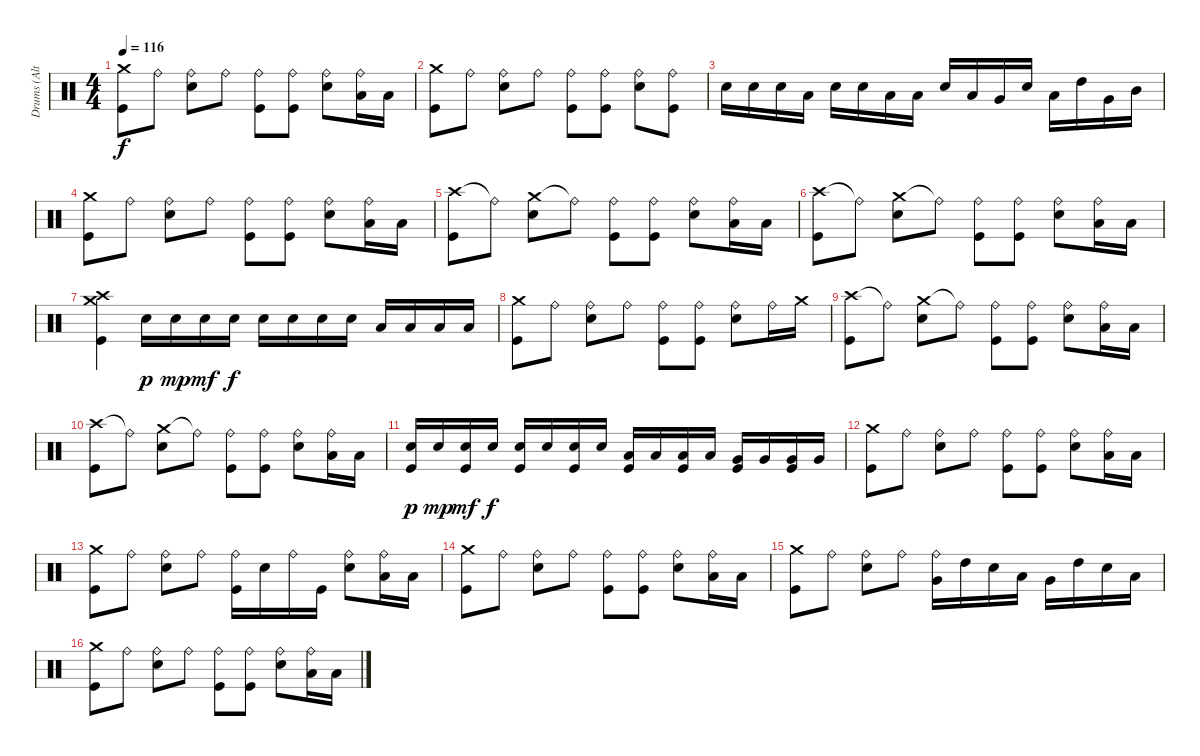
\track ("Drums (Alternate - NOT ON MASTER)" "Drums (Alt") {mute instrument percussion}
\staff {score}
\articulation defaults
\ts (4 4)
\tempo 116
\clef neutral
\ks c
("Crash medium (hit)" "Kick (hit)").8{dy f} "Ride (bell)".8 ("Ride (bell)" "Snare (hit) 2").8 "Ride (bell)".8 ("Ride (bell)" "Kick (hit)").8 ("Ride (bell)" "Kick (hit)").8 ("Ride (bell)" "Snare (hit) 2").8 ("Ride (bell)" "Low Tom (hit)").16 "Low Tom (hit)".16 |
("Crash medium (hit)" "Kick (hit)").8 "Ride (bell)".8 ("Ride (bell)" "Snare (hit) 2").8 "Ride (bell)".8 ("Ride (bell)" "Kick (hit)").8 ("Ride (bell)" "Kick (hit)").8 ("Ride (bell)" "Snare (hit) 2").8 ("Ride (bell)" "Kick (hit)").8 |
"Snare (hit) 2".16 "Snare (hit) 2".16 "Snare (hit) 2".16 "Low Tom (hit)".16 "Snare (hit) 2".16 "Snare (hit) 2".16 "Low Tom (hit)".16 "Low Tom (hit)".16 "Snare (hit) 2".16 "Low Tom (hit)".16 "Very Low Tom (hit)".16 "Snare (hit) 2".16 "Low Tom (hit)".16 "High Tom (hit)".16 "Very Low Tom (hit)".16 "Mid Tom (hit)".16 |
("Crash medium (hit)" "Kick (hit)").8 "Ride (bell)".8 ("Ride (bell)" "Snare (hit) 2").8 "Ride (bell)".8 ("Ride (bell)" "Kick (hit)").8 ("Ride (bell)" "Kick (hit)").8 ("Ride (bell)" "Snare (hit) 2").8 ("Ride (bell)" "Low Tom (hit)").16 "Low Tom (hit)".16 |
("Crash high (hit)" "Kick (hit)").8 "Ride (bell)"{t}.8 ("Crash medium (hit)" "Snare (hit) 2").8 "Ride (bell)"{t}.8 ("Ride (bell)" "Kick (hit)").8 ("Ride (bell)" "Kick (hit)").8 ("Ride (bell)" "Snare (hit) 2").8 ("Ride (bell)" "Low Tom (hit)").16 "Low Tom (hit)".16 |
("Crash high (hit)" "Kick (hit)").8 "Ride (bell)"{t}.8 ("Crash medium (hit)" "Snare (hit) 2").8 "Ride (bell)"{t}.8 ("Ride (bell)" "Kick (hit)").8 ("Ride (bell)" "Kick (hit)").8 ("Ride (bell)" "Snare (hit) 2").8 ("Ride (bell)" "Low Tom (hit)").16 "Low Tom (hit)".16 |
("Crash medium (hit)" "Crash high (hit)" "Kick (hit)").4 "Snare (hit) 2".16{dy p} "Snare (hit) 2".16{dy mp} "Snare (hit) 2".16{dy mf} "Snare (hit) 2".16{dy f} "Snare (hit) 2".16 "Snare (hit) 2".16 "Snare (hit) 2".16 "Snare (hit) 2".16 "Low Tom (hit)".16 "Low Tom (hit)".16 "Low Tom (hit)".16 "Low Tom (hit)".16 |
("Crash medium (hit)" "Kick (hit)").8 "Ride (bell)".8 ("Ride (bell)" "Snare (hit) 2").8 "Ride (bell)".8 ("Ride (bell)" "Kick (hit)").8 ("Ride (bell)" "Kick (hit)").8 ("Ride (bell)" "Snare (hit) 2").8 "Ride (bell)".16 "Crash medium (hit)".16 |
("Crash high (hit)" "Kick (hit)").8 "Ride (bell)"{t}.8 ("Crash medium (hit)" "Snare (hit) 2").8 "Ride (bell)"{t}.8 ("Ride (bell)" "Kick (hit)").8 ("Ride (bell)" "Kick (hit)").8 ("Ride (bell)" "Snare (hit) 2").8 ("Ride (bell)" "Low Tom (hit)").16 "Low Tom (hit)".16 |
("Crash high (hit)" "Kick (hit)").8 "Ride (bell)"{t}.8 ("Crash medium (hit)" "Snare (hit) 2").8 "Ride (bell)"{t}.8 ("Ride (bell)" "Kick (hit)").8 ("Ride (bell)" "Kick (hit)").8 ("Ride (bell)" "Snare (hit) 2").8 ("Ride (bell)" "Low Tom (hit)").16 "Low Tom (hit)".16 |
("Snare (hit) 2" "Kick (hit)").16{dy p} "Snare (hit) 2".16{dy mp} ("Snare (hit) 2" "Kick (hit)").16{dy mf} "Snare (hit) 2".16{dy f} ("Snare (hit) 2" "Kick (hit)").16 "Snare (hit) 2".16 ("Snare (hit) 2" "Kick (hit)").16 "Snare (hit) 2".16 ("Low Tom (hit)" "Kick (hit)").16 "Low Tom (hit)".16 ("Low Tom (hit)" "Kick (hit)").16 "Low Tom (hit)".16 ("Very Low Tom (hit)" "Kick (hit)").16 "Very Low Tom (hit)".16 ("Very Low Tom (hit)" "Kick (hit)").16 "Very Low Tom (hit)".16 |
("Crash medium (hit)" "Kick (hit)").8 "Ride (bell)".8 ("Ride (bell)" "Snare (hit) 2").8 "Ride (bell)".8 ("Ride (bell)" "Kick (hit)").8 ("Ride (bell)" "Kick (hit)").8 ("Ride (bell)" "Snare (hit) 2").8 ("Ride (bell)" "Low Tom (hit)").16 "Low Tom (hit)".16 |
("Crash medium (hit)" "Kick (hit)").8 "Ride (bell)".8 ("Ride (bell)" "Snare (hit) 2").8 "Ride (bell)".8 ("Ride (bell)" "Kick (hit)").16 "Snare (hit) 2".16 "Ride (bell)".16 "Kick (hit)".16 ("Ride (bell)" "Snare (hit) 2").8 ("Ride (bell)" "Low Tom (hit)").16 "Low Tom (hit)".16 |
("Crash medium (hit)" "Kick (hit)").8 "Ride (bell)".8 ("Ride (bell)" "Snare (hit) 2").8 "Ride (bell)".8 ("Ride (bell)" "Kick (hit)").8 ("Ride (bell)" "Kick (hit)").8 ("Ride (bell)" "Snare (hit) 2").8 ("Ride (bell)" "Low Tom (hit)").16 "Low Tom (hit)".16 |
("Crash medium (hit)" "Kick (hit)").8 "Ride (bell)".8 ("Ride (bell)" "Snare (hit) 2").8 "Ride (bell)".8 ("Ride (bell)" "Very Low Tom (hit)").16 "High Tom (hit)".16 "Snare (hit) 2".16 "Low Tom (hit)".16 "Very Low Tom (hit)".16 "High Tom (hit)".16 "Snare (hit) 2".16 "Low Tom (hit)".16 |
("Crash medium (hit)" "Kick (hit)").8 "Ride (bell)".8 ("Ride (bell)" "Snare (hit) 2").8 "Ride (bell)".8 ("Ride (bell)" "Kick (hit)").8 ("Ride (bell)" "Kick (hit)").8 ("Ride (bell)" "Snare (hit) 2").8 ("Ride (bell)" "Low Tom (hit)").16 "Low Tom (hit)".16
